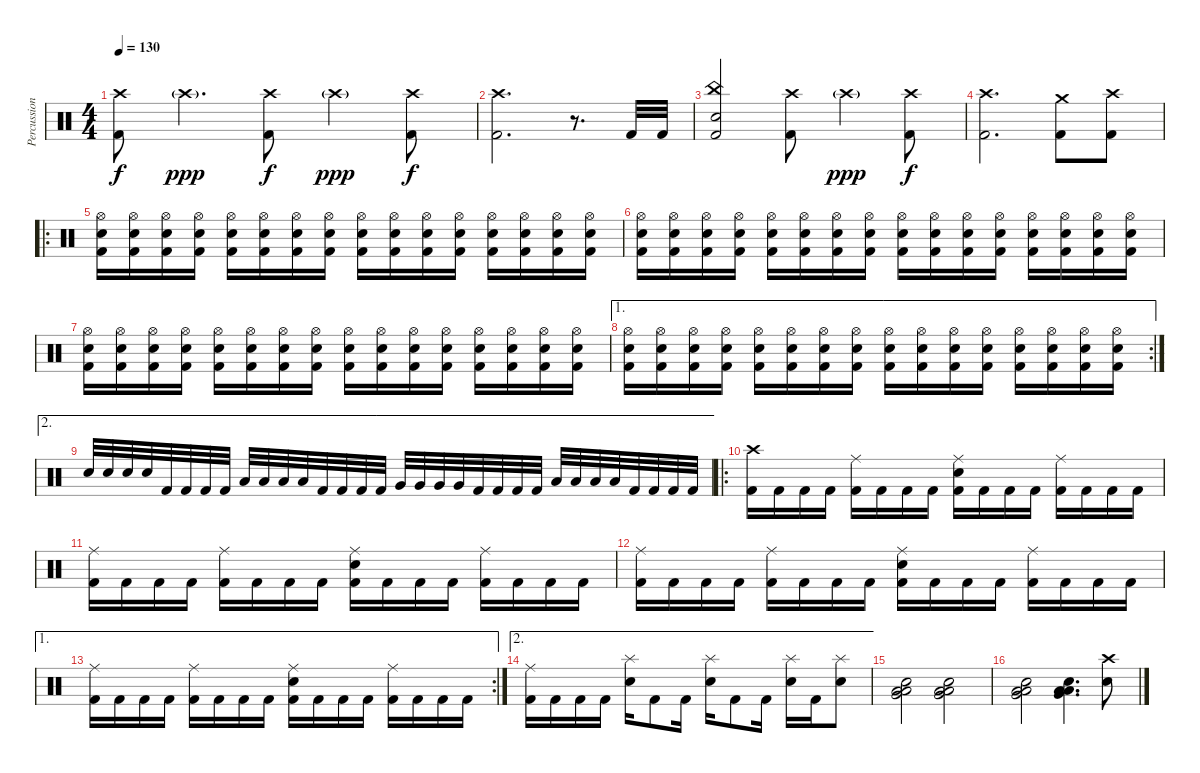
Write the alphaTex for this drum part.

\track ("Percussion" "Percussion") {instrument percussion}
\staff {score}
\articulation defaults
\ts (4 4)
\tempo 130
\clef neutral
\ks c
("Crash high (hit)" "Kick (hit) 2").8{dy f} "Crash high (hit)"{g}.4{d dy ppp} ("Crash high (hit)" "Kick (hit) 2").8{dy f} "Crash high (hit)"{g}.4{dy ppp} ("Crash high (hit)" "Kick (hit) 2").8{dy f} |
("Crash high (hit)" "Kick (hit) 2").2{d} r.8{d} "Kick (hit) 2".32 "Kick (hit) 2".32 |
("China (hit)" "Electric Snare (hit)" "Kick (hit) 2").2 ("Crash high (hit)" "Kick (hit) 2").8 "Crash high (hit)"{g}.4{dy ppp} ("Crash high (hit)" "Kick (hit) 2").8{dy f} |
("Crash high (hit)" "Kick (hit) 2").2{d} ("Crash medium (hit)" "Kick (hit) 2").8 ("Crash high (hit)" "Kick (hit) 2").8 |
\ro
("Hi-Hat (open)" "Electric Snare (hit)" "Kick (hit) 2").16 ("Hi-Hat (open)" "Electric Snare (hit)" "Kick (hit) 2").16 ("Hi-Hat (open)" "Electric Snare (hit)" "Kick (hit) 2").16 ("Hi-Hat (open)" "Electric Snare (hit)" "Kick (hit) 2").16 ("Hi-Hat (open)" "Electric Snare (hit)" "Kick (hit) 2").16 ("Hi-Hat (open)" "Electric Snare (hit)" "Kick (hit) 2").16 ("Hi-Hat (open)" "Electric Snare (hit)" "Kick (hit) 2").16 ("Hi-Hat (open)" "Electric Snare (hit)" "Kick (hit) 2").16 ("Hi-Hat (open)" "Electric Snare (hit)" "Kick (hit) 2").16 ("Hi-Hat (open)" "Electric Snare (hit)" "Kick (hit) 2").16 ("Hi-Hat (open)" "Electric Snare (hit)" "Kick (hit) 2").16 ("Hi-Hat (open)" "Electric Snare (hit)" "Kick (hit) 2").16 ("Hi-Hat (open)" "Electric Snare (hit)" "Kick (hit) 2").16 ("Hi-Hat (open)" "Electric Snare (hit)" "Kick (hit) 2").16 ("Hi-Hat (open)" "Electric Snare (hit)" "Kick (hit) 2").16 ("Hi-Hat (open)" "Electric Snare (hit)" "Kick (hit) 2").16 |
("Hi-Hat (open)" "Electric Snare (hit)" "Kick (hit) 2").16 ("Hi-Hat (open)" "Electric Snare (hit)" "Kick (hit) 2").16 ("Hi-Hat (open)" "Electric Snare (hit)" "Kick (hit) 2").16 ("Hi-Hat (open)" "Electric Snare (hit)" "Kick (hit) 2").16 ("Hi-Hat (open)" "Electric Snare (hit)" "Kick (hit) 2").16 ("Hi-Hat (open)" "Electric Snare (hit)" "Kick (hit) 2").16 ("Hi-Hat (open)" "Electric Snare (hit)" "Kick (hit) 2").16 ("Hi-Hat (open)" "Electric Snare (hit)" "Kick (hit) 2").16 ("Hi-Hat (open)" "Electric Snare (hit)" "Kick (hit) 2").16 ("Hi-Hat (open)" "Electric Snare (hit)" "Kick (hit) 2").16 ("Hi-Hat (open)" "Electric Snare (hit)" "Kick (hit) 2").16 ("Hi-Hat (open)" "Electric Snare (hit)" "Kick (hit) 2").16 ("Hi-Hat (open)" "Electric Snare (hit)" "Kick (hit) 2").16 ("Hi-Hat (open)" "Electric Snare (hit)" "Kick (hit) 2").16 ("Hi-Hat (open)" "Electric Snare (hit)" "Kick (hit) 2").16 ("Hi-Hat (open)" "Electric Snare (hit)" "Kick (hit) 2").16 |
("Hi-Hat (open)" "Electric Snare (hit)" "Kick (hit) 2").16 ("Hi-Hat (open)" "Electric Snare (hit)" "Kick (hit) 2").16 ("Hi-Hat (open)" "Electric Snare (hit)" "Kick (hit) 2").16 ("Hi-Hat (open)" "Electric Snare (hit)" "Kick (hit) 2").16 ("Hi-Hat (open)" "Electric Snare (hit)" "Kick (hit) 2").16 ("Hi-Hat (open)" "Electric Snare (hit)" "Kick (hit) 2").16 ("Hi-Hat (open)" "Electric Snare (hit)" "Kick (hit) 2").16 ("Hi-Hat (open)" "Electric Snare (hit)" "Kick (hit) 2").16 ("Hi-Hat (open)" "Electric Snare (hit)" "Kick (hit) 2").16 ("Hi-Hat (open)" "Electric Snare (hit)" "Kick (hit) 2").16 ("Hi-Hat (open)" "Electric Snare (hit)" "Kick (hit) 2").16 ("Hi-Hat (open)" "Electric Snare (hit)" "Kick (hit) 2").16 ("Hi-Hat (open)" "Electric Snare (hit)" "Kick (hit) 2").16 ("Hi-Hat (open)" "Electric Snare (hit)" "Kick (hit) 2").16 ("Hi-Hat (open)" "Electric Snare (hit)" "Kick (hit) 2").16 ("Hi-Hat (open)" "Electric Snare (hit)" "Kick (hit) 2").16 |
\ae 1
\rc 2
("Hi-Hat (open)" "Electric Snare (hit)" "Kick (hit) 2").16 ("Hi-Hat (open)" "Electric Snare (hit)" "Kick (hit) 2").16 ("Hi-Hat (open)" "Electric Snare (hit)" "Kick (hit) 2").16 ("Hi-Hat (open)" "Electric Snare (hit)" "Kick (hit) 2").16 ("Hi-Hat (open)" "Electric Snare (hit)" "Kick (hit) 2").16 ("Hi-Hat (open)" "Electric Snare (hit)" "Kick (hit) 2").16 ("Hi-Hat (open)" "Electric Snare (hit)" "Kick (hit) 2").16 ("Hi-Hat (open)" "Electric Snare (hit)" "Kick (hit) 2").16 ("Hi-Hat (open)" "Electric Snare (hit)" "Kick (hit) 2").16 ("Hi-Hat (open)" "Electric Snare (hit)" "Kick (hit) 2").16 ("Hi-Hat (open)" "Electric Snare (hit)" "Kick (hit) 2").16 ("Hi-Hat (open)" "Electric Snare (hit)" "Kick (hit) 2").16 ("Hi-Hat (open)" "Electric Snare (hit)" "Kick (hit) 2").16 ("Hi-Hat (open)" "Electric Snare (hit)" "Kick (hit) 2").16 ("Hi-Hat (open)" "Electric Snare (hit)" "Kick (hit) 2").16 ("Hi-Hat (open)" "Electric Snare (hit)" "Kick (hit) 2").16 |
\ae 2 "Electric Snare (hit)".32 "Electric Snare (hit)".32 "Electric Snare (hit)".32 "Electric Snare (hit)".32 "Kick (hit) 2".32 "Kick (hit) 2".32 "Kick (hit) 2".32 "Kick (hit) 2".32 "Low Tom (hit)".32 "Low Tom (hit)".32 "Low Tom (hit)".32 "Low Tom (hit)".32 "Kick (hit) 2".32 "Kick (hit) 2".32 "Kick (hit) 2".32 "Kick (hit) 2".32 "Very Low Tom (hit)".32 "Very Low Tom (hit)".32 "Very Low Tom (hit)".32 "Very Low Tom (hit)".32 "Kick (hit) 2".32 "Kick (hit) 2".32 "Kick (hit) 2".32 "Kick (hit) 2".32 "Low Floor Tom (hit)".32 "Low Floor Tom (hit)".32 "Low Floor Tom (hit)".32 "Low Floor Tom (hit)".32 "Kick (hit) 2".32 "Kick (hit) 2".32 "Kick (hit) 2".32 "Kick (hit) 2".32
|
\ro
("Crash high (hit)" "Kick (hit) 2").16 "Kick (hit) 2".16 "Kick (hit) 2".16 "Kick (hit) 2".16 ("Ride (middle)" "Kick (hit) 2").16 "Kick (hit) 2".16 "Kick (hit) 2".16 "Kick (hit) 2".16 ("Ride (middle)" "Electric Snare (hit)" "Kick (hit) 2").16 "Kick (hit) 2".16 "Kick (hit) 2".16 "Kick (hit) 2".16 ("Ride (middle)" "Kick (hit) 2").16 "Kick (hit) 2".16 "Kick (hit) 2".16 "Kick (hit) 2".16 |
("Ride (middle)" "Kick (hit) 2").16 "Kick (hit) 2".16 "Kick (hit) 2".16 "Kick (hit) 2".16 ("Ride (middle)" "Kick (hit) 2").16 "Kick (hit) 2".16 "Kick (hit) 2".16 "Kick (hit) 2".16 ("Ride (middle)" "Electric Snare (hit)" "Kick (hit) 2").16 "Kick (hit) 2".16 "Kick (hit) 2".16 "Kick (hit) 2".16 ("Ride (middle)" "Kick (hit) 2").16 "Kick (hit) 2".16 "Kick (hit) 2".16 "Kick (hit) 2".16 |
("Ride (middle)" "Kick (hit) 2").16 "Kick (hit) 2".16 "Kick (hit) 2".16 "Kick (hit) 2".16 ("Ride (middle)" "Kick (hit) 2").16 "Kick (hit) 2".16 "Kick (hit) 2".16 "Kick (hit) 2".16 ("Ride (middle)" "Electric Snare (hit)" "Kick (hit) 2").16 "Kick (hit) 2".16 "Kick (hit) 2".16 "Kick (hit) 2".16 ("Ride (middle)" "Kick (hit) 2").16 "Kick (hit) 2".16 "Kick (hit) 2".16 "Kick (hit) 2".16 |
\ae 1
\rc 2
("Ride (middle)" "Kick (hit) 2").16 "Kick (hit) 2".16 "Kick (hit) 2".16 "Kick (hit) 2".16 ("Ride (middle)" "Kick (hit) 2").16 "Kick (hit) 2".16 "Kick (hit) 2".16 "Kick (hit) 2".16 ("Ride (middle)" "Electric Snare (hit)" "Kick (hit) 2").16 "Kick (hit) 2".16 "Kick (hit) 2".16 "Kick (hit) 2".16 ("Ride (middle)" "Kick (hit) 2").16 "Kick (hit) 2".16 "Kick (hit) 2".16 "Kick (hit) 2".16 |
\ae 2
("Ride (middle)" "Kick (hit) 2").16 "Kick (hit) 2".16 "Kick (hit) 2".16 "Kick (hit) 2".16 ("Splash (hit)" "Electric Snare (hit)").16 "Kick (hit) 2".8 "Kick (hit) 2".16 ("Splash (hit)" "Electric Snare (hit)").16 "Kick (hit) 2".8 "Kick (hit) 2".16 ("Splash (hit)" "Electric Snare (hit)").16 "Kick (hit) 2".16 ("Splash (hit)" "Electric Snare (hit)").8 |
("Low Tom (hit)" "Very Low Tom (hit)" "Low Floor Tom (hit)" "Electric Snare (hit)").2 ("Low Tom (hit)" "Very Low Tom (hit)" "Low Floor Tom (hit)" "Electric Snare (hit)").2 |
("Low Tom (hit)" "Very Low Tom (hit)" "Low Floor Tom (hit)" "Electric Snare (hit)").2 ("Low Tom (hit)" "Very Low Tom (hit)" "Low Floor Tom (hit)" "Electric Snare (hit)").4{d} ("Crash high (hit)" "Electric Snare (hit)").8
